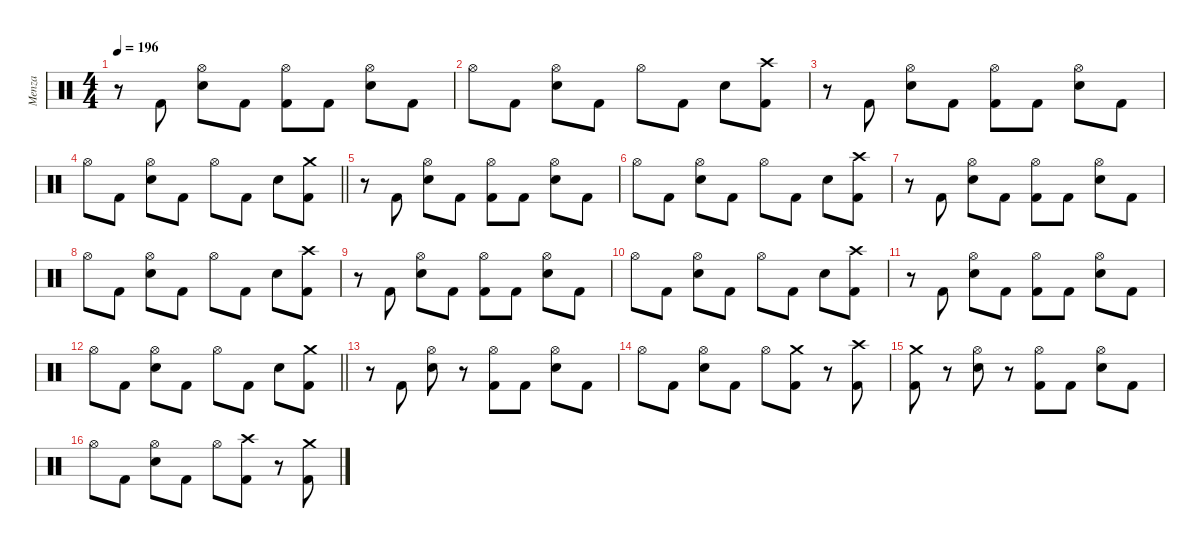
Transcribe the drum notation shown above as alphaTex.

\defaultSystemsLayout 4
\hideDynamics
\bracketExtendMode nobrackets
\firstSystemTrackNameMode fullname
\otherSystemsTrackNameOrientation horizontal
\track ("Menza" "drm.") {instrument percussion}
\staff {score}
\articulation defaults
\ts (4 4)
\tempo 196
\clef neutral
\ks c
r.8{dy ff beam Down} "Kick (hit) 2".8{dy fff beam Up} ("Hi-Hat (open)" "Snare (hit) 2").8{dy f beam Down} "Kick (hit) 2".8{dy fff beam Down} ("Hi-Hat (open)" "Kick (hit) 2").8{dy f beam Down} "Kick (hit) 2".8{dy fff beam Down} ("Hi-Hat (open)" "Snare (hit) 2").8{dy f beam Down} "Kick (hit) 2".8{dy fff beam Down} |
"Hi-Hat (open)".8{dy f beam Down} "Kick (hit) 2".8{dy fff beam Down} ("Hi-Hat (open)" "Snare (hit) 2").8{dy f beam Down} "Kick (hit) 2".8{dy fff beam Down} "Hi-Hat (open)".8{dy f beam Down} "Kick (hit) 2".8{dy fff beam Down} "Snare (hit) 2".8{beam Down} ("Crash high (hit)" "Kick (hit) 2").8{beam Down} |
r.8{beam Down} "Kick (hit) 2".8{beam Up} ("Hi-Hat (open)" "Snare (hit) 2").8{dy f beam Down} "Kick (hit) 2".8{dy fff beam Down} ("Hi-Hat (open)" "Kick (hit) 2").8{dy f beam Down} "Kick (hit) 2".8{dy fff beam Down} ("Hi-Hat (open)" "Snare (hit) 2").8{dy f beam Down} "Kick (hit) 2".8{dy fff beam Down} |
\barLineRight lightlight "Hi-Hat (open)".8{dy f beam Down} "Kick (hit) 2".8{dy fff beam Down}
("Hi-Hat (open)" "Snare (hit) 2").8{dy f beam Down} "Kick (hit) 2".8{dy fff beam Down} "Hi-Hat (open)".8{dy f beam Down} "Kick (hit) 2".8{dy fff beam Down} "Snare (hit) 2".8{beam Down} ("Crash medium (hit)" "Kick (hit) 2").8{beam Down} |
r.8{beam Down} "Kick (hit) 2".8{beam Up} ("Hi-Hat (open)" "Snare (hit) 2").8{dy f beam Down} "Kick (hit) 2".8{dy fff beam Down} ("Hi-Hat (open)" "Kick (hit) 2").8{dy f beam Down} "Kick (hit) 2".8{dy fff beam Down} ("Hi-Hat (open)" "Snare (hit) 2").8{dy f beam Down} "Kick (hit) 2".8{dy fff beam Down} |
"Hi-Hat (open)".8{dy f beam Down} "Kick (hit) 2".8{dy fff beam Down} ("Hi-Hat (open)" "Snare (hit) 2").8{dy f beam Down} "Kick (hit) 2".8{dy fff beam Down} "Hi-Hat (open)".8{dy f beam Down} "Kick (hit) 2".8{dy fff beam Down} "Snare (hit) 2".8{beam Down} ("Crash high (hit)" "Kick (hit) 2").8{beam Down} |
r.8{beam Down} "Kick (hit) 2".8{beam Up} ("Hi-Hat (open)" "Snare (hit) 2").8{dy f beam Down} "Kick (hit) 2".8{dy fff beam Down} ("Hi-Hat (open)" "Kick (hit) 2").8{dy f beam Down} "Kick (hit) 2".8{dy fff beam Down} ("Hi-Hat (open)" "Snare (hit) 2").8{dy f beam Down} "Kick (hit) 2".8{dy fff beam Down} |
"Hi-Hat (open)".8{dy f beam Down} "Kick (hit) 2".8{dy fff beam Down} ("Hi-Hat (open)" "Snare (hit) 2").8{dy f beam Down} "Kick (hit) 2".8{dy fff beam Down} "Hi-Hat (open)".8{dy f beam Down} "Kick (hit) 2".8{dy fff beam Down} "Snare (hit) 2".8{beam Down} ("Crash high (hit)" "Kick (hit) 2").8{beam Down} |
r.8{beam Down} "Kick (hit) 2".8{beam Up} ("Hi-Hat (open)" "Snare (hit) 2").8{dy f beam Down} "Kick (hit) 2".8{dy fff beam Down} ("Hi-Hat (open)" "Kick (hit) 2").8{dy f beam Down} "Kick (hit) 2".8{dy fff beam Down} ("Hi-Hat (open)" "Snare (hit) 2").8{dy f beam Down} "Kick (hit) 2".8{dy fff beam Down} |
"Hi-Hat (open)".8{dy f beam Down} "Kick (hit) 2".8{dy fff beam Down} ("Hi-Hat (open)" "Snare (hit) 2").8{dy f beam Down} "Kick (hit) 2".8{dy fff beam Down} "Hi-Hat (open)".8{dy f beam Down} "Kick (hit) 2".8{dy fff beam Down} "Snare (hit) 2".8{beam Down} ("Crash high (hit)" "Kick (hit) 2").8{beam Down} |
r.8{beam Down} "Kick (hit) 2".8{beam Up} ("Hi-Hat (open)" "Snare (hit) 2").8{dy f beam Down} "Kick (hit) 2".8{dy fff beam Down} ("Hi-Hat (open)" "Kick (hit) 2").8{dy f beam Down} "Kick (hit) 2".8{dy fff beam Down} ("Hi-Hat (open)" "Snare (hit) 2").8{dy f beam Down} "Kick (hit) 2".8{dy fff beam Down} |
\barLineRight lightlight "Hi-Hat (open)".8{dy f beam Down} "Kick (hit) 2".8{dy fff beam Down}
("Hi-Hat (open)" "Snare (hit) 2").8{dy f beam Down} "Kick (hit) 2".8{dy fff beam Down} "Hi-Hat (open)".8{dy f beam Down} "Kick (hit) 2".8{dy fff beam Down} "Snare (hit) 2".8{beam Down} ("Crash medium (hit)" "Kick (hit) 2").8{beam Down} |
r.8{beam Down} "Kick (hit) 2".8{beam Up} ("Hi-Hat (open)" "Snare (hit) 2").8{dy f beam Down} r.8{beam Down} ("Hi-Hat (open)" "Kick (hit) 2").8{beam Down} "Kick (hit) 2".8{dy fff beam Down} ("Hi-Hat (open)" "Snare (hit) 2").8{dy f beam Down} "Kick (hit) 2".8{dy fff beam Down} |
"Hi-Hat (open)".8{dy f beam Down} "Kick (hit) 2".8{dy fff beam Down} ("Hi-Hat (open)" "Snare (hit) 2").8{dy f beam Down} "Kick (hit) 2".8{dy fff beam Down} "Hi-Hat (open)".8{dy f beam Down} ("Crash medium (hit)" "Kick (hit) 2").8{dy fff beam Down} r.8{beam Down} ("Crash high (hit)" "Kick (hit) 2").8{dy f beam Down} |
("Crash medium (hit)" "Kick (hit) 2").8{dy ff beam Down} r.8{beam Down} ("Hi-Hat (open)" "Snare (hit) 2").8{dy f beam Down} r.8{beam Down} ("Hi-Hat (open)" "Kick (hit) 2").8{beam Down} "Kick (hit) 2".8{dy fff beam Down} ("Hi-Hat (open)" "Snare (hit) 2").8{dy f beam Down} "Kick (hit) 2".8{dy fff beam Down} |
"Hi-Hat (open)".8{dy f beam Down} "Kick (hit) 2".8{dy fff beam Down} ("Hi-Hat (open)" "Snare (hit) 2").8{dy f beam Down} "Kick (hit) 2".8{dy fff beam Down} "Hi-Hat (open)".8{dy f beam Down} ("Crash high (hit)" "Kick (hit) 2").8{dy fff beam Down} r.8{beam Down} ("Crash medium (hit)" "Kick (hit) 2").8{dy f beam Down}
